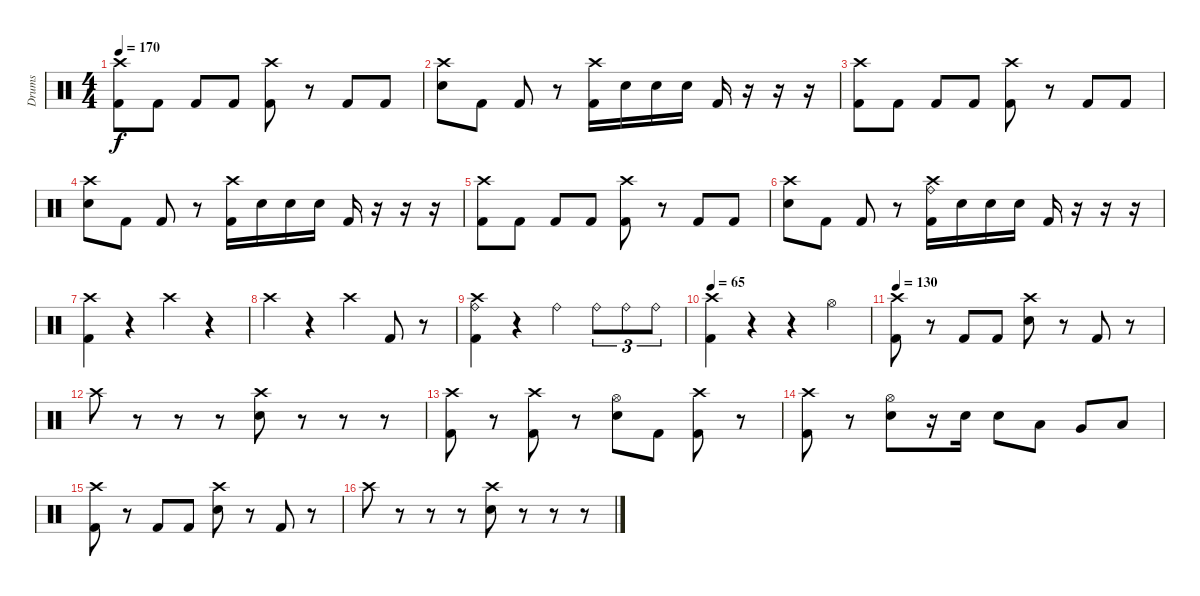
\track ("Drums" "Drums") {instrument percussion}
\staff {score}
\articulation defaults
\ts (4 4)
\tempo 170
\clef neutral
\ks c
("Crash high (hit)" "Kick (hit) 2").8{dy f} "Kick (hit) 2".8 "Kick (hit) 2".8 "Kick (hit) 2".8 ("Crash high (hit)" "Kick (hit) 2").8 r.8 "Kick (hit) 2".8 "Kick (hit) 2".8 |
("Crash high (hit)" "Electric Snare (hit)").8 "Kick (hit) 2".8 "Kick (hit) 2".8 r.8 ("Crash high (hit)" "Kick (hit) 2").16 "Electric Snare (hit)".16 "Electric Snare (hit)".16 "Electric Snare (hit)".16 "Kick (hit) 2".16 r.16 r.16 r.16 |
("Crash high (hit)" "Kick (hit) 2").8 "Kick (hit) 2".8 "Kick (hit) 2".8 "Kick (hit) 2".8 ("Crash high (hit)" "Kick (hit) 2").8 r.8 "Kick (hit) 2".8 "Kick (hit) 2".8 |
("Crash high (hit)" "Electric Snare (hit)").8 "Kick (hit) 2".8 "Kick (hit) 2".8 r.8 ("Crash high (hit)" "Kick (hit) 2").16 "Electric Snare (hit)".16 "Electric Snare (hit)".16 "Electric Snare (hit)".16 "Kick (hit) 2".16 r.16 r.16 r.16 |
("Crash high (hit)" "Kick (hit) 2").8 "Kick (hit) 2".8 "Kick (hit) 2".8 "Kick (hit) 2".8 ("Crash high (hit)" "Kick (hit) 2").8 r.8 "Kick (hit) 2".8 "Kick (hit) 2".8 |
("Crash high (hit)" "Electric Snare (hit)").8 "Kick (hit) 2".8 "Kick (hit) 2".8 r.8 ("Crash high (hit)" "Kick (hit) 2" "Ride (bell)").16 "Electric Snare (hit)".16 "Electric Snare (hit)".16 "Electric Snare (hit)".16 "Kick (hit) 2".16 r.16 r.16 r.16 |
("Kick (hit) 2" "Crash high (hit)").4 r.4 "Crash high (hit)".4 r.4 |
"Crash high (hit)".4 r.4 "Crash high (hit)".4 "Kick (hit) 2".8 r.8 |
("Kick (hit) 2" "Crash high (hit)" "Ride (bell)").4 r.4 "Ride (bell)".4 "Ride (bell)".8{tu (3 2)} "Ride (bell)".8{tu (3 2)} "Ride (bell)".8{tu (3 2)} |
\tempo 65
("Kick (hit) 2" "Crash high (hit)").4 r.4 r.4 "Hi-Hat (open)".4 |
\tempo 130
("Kick (hit) 2" "Crash high (hit)").8 r.8 "Kick (hit) 2".8 "Kick (hit) 2".8 ("Electric Snare (hit)" "Crash high (hit)").8 r.8 "Kick (hit) 2".8 r.8 |
"Crash high (hit)".8 r.8 r.8 r.8 ("Electric Snare (hit)" "Crash high (hit)").8 r.8 r.8 r.8 |
("Kick (hit) 2" "Crash high (hit)").8 r.8 ("Kick (hit) 2" "Crash high (hit)").8 r.8 ("Electric Snare (hit)" "Hi-Hat (open)").8 "Kick (hit) 2".8 ("Kick (hit) 2" "Crash high (hit)").8 r.8 |
("Kick (hit) 2" "Crash high (hit)").8 r.8 ("Electric Snare (hit)" "Hi-Hat (open)").8 r.16 "Electric Snare (hit)".16 "Electric Snare (hit)".8 "Low Tom (hit)".8 "Very Low Tom (hit)".8 "Low Floor Tom (hit)".8 |
("Kick (hit) 2" "Crash high (hit)").8 r.8 "Kick (hit) 2".8 "Kick (hit) 2".8 ("Electric Snare (hit)" "Crash high (hit)").8 r.8 "Kick (hit) 2".8 r.8 |
"Crash high (hit)".8 r.8 r.8 r.8 ("Electric Snare (hit)" "Crash high (hit)").8 r.8 r.8 r.8
